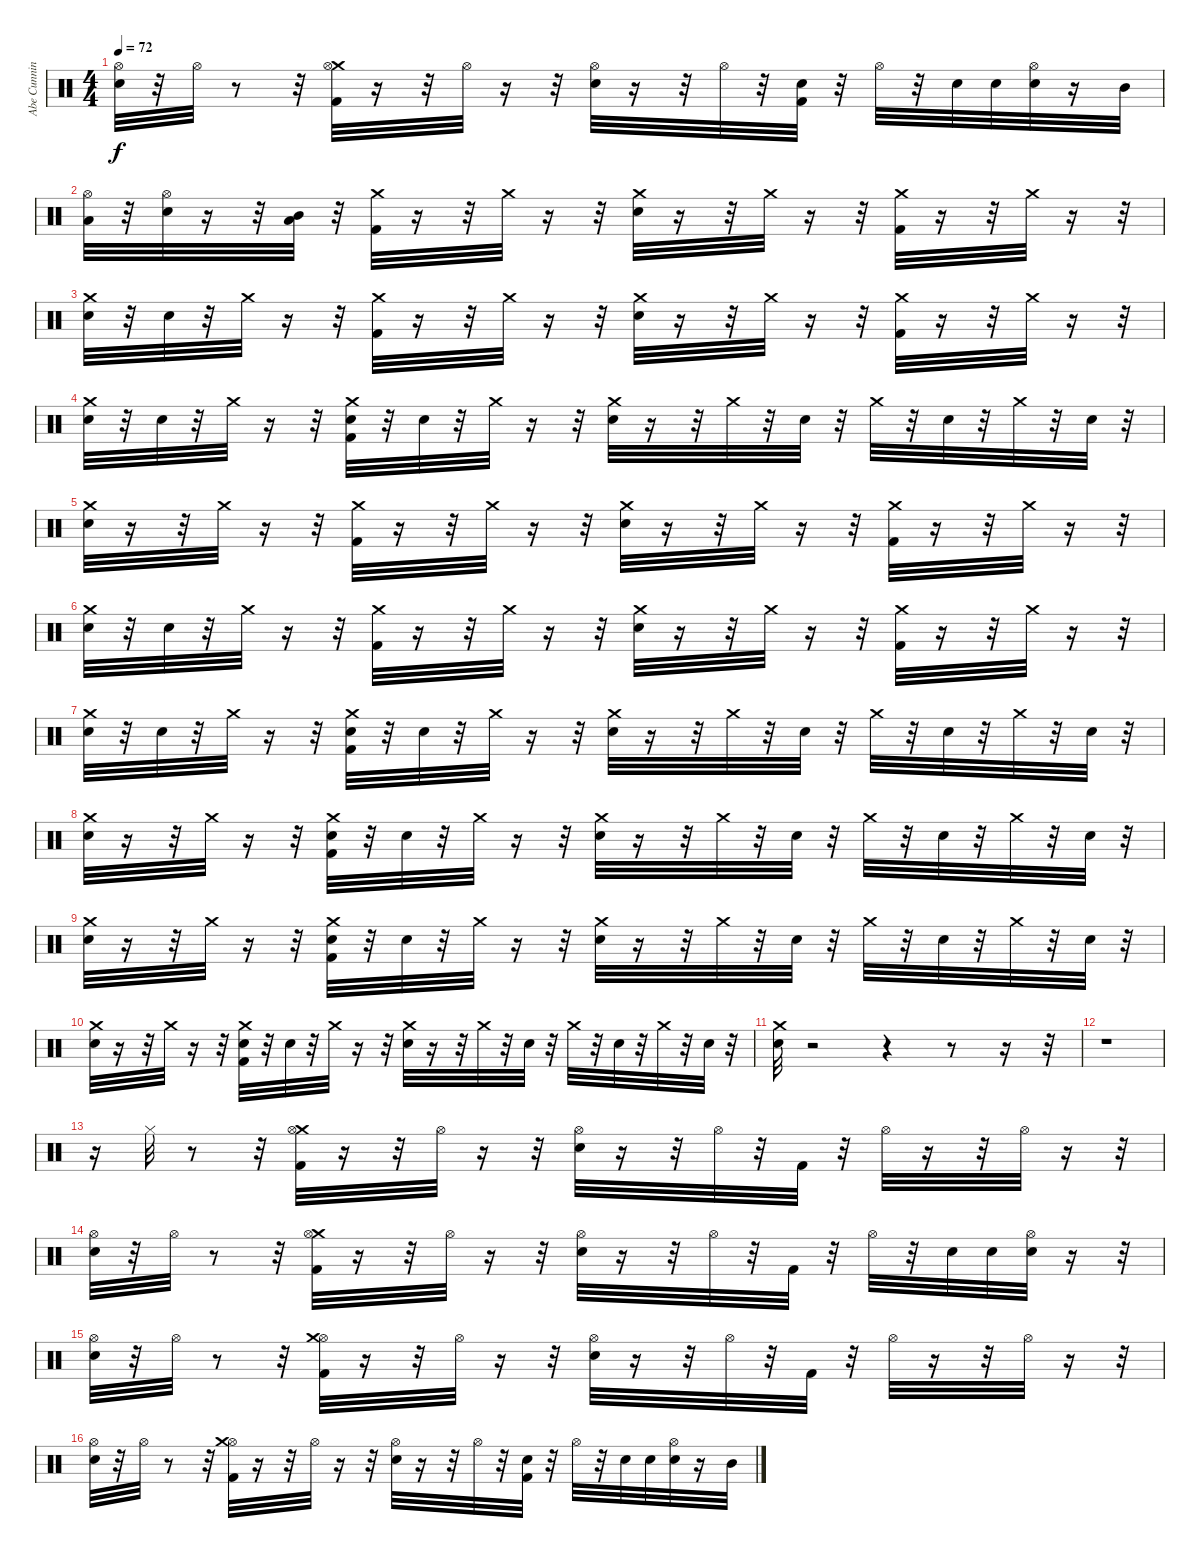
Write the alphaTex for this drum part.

\track ("Abe Cunningham [drums]" "Abe Cunnin") {instrument percussion}
\staff {score}
\articulation defaults
\ts (4 4)
\tempo 72
\clef neutral
\ks c
("Hi-Hat (open)" "Electric Snare (hit)").32{dy f} r.32 "Hi-Hat (open)".32 r.8 r.32 ("Crash medium (hit)" "Hi-Hat (open)" "Kick (hit) 2").32 r.16 r.32 "Hi-Hat (open)".32 r.16 r.32 ("Hi-Hat (open)" "Electric Snare (hit)").32 r.16 r.32 "Hi-Hat (open)".32 r.32 ("Electric Snare (hit)" "Kick (hit) 2").32 r.32 "Hi-Hat (open)".32 r.32 "Electric Snare (hit)".32 "Electric Snare (hit)".32 ("Hi-Hat (open)" "Electric Snare (hit)").32 r.16 "Mid Tom (hit)".32 |
("Hi-Hat (open)" "Low Tom (hit)").32 r.32 ("Hi-Hat (open)" "Electric Snare (hit)").32 r.16 r.32 ("Mid Tom (hit)" "Low Tom (hit)").32 r.32 ("Crash medium (hit)" "Kick (hit) 2").32 r.16 r.32 "Crash medium (hit)".32 r.16 r.32 ("Crash medium (hit)" "Electric Snare (hit)").32 r.16 r.32 "Crash medium (hit)".32 r.16 r.32 ("Crash medium (hit)" "Kick (hit) 2").32 r.16 r.32 "Crash medium (hit)".32 r.16 r.32 |
("Crash medium (hit)" "Electric Snare (hit)").32 r.32 "Electric Snare (hit)".32 r.32 "Crash medium (hit)".32 r.16 r.32 ("Crash medium (hit)" "Kick (hit) 2").32 r.16 r.32 "Crash medium (hit)".32 r.16 r.32 ("Crash medium (hit)" "Electric Snare (hit)").32 r.16 r.32 "Crash medium (hit)".32 r.16 r.32 ("Crash medium (hit)" "Kick (hit) 2").32 r.16 r.32 "Crash medium (hit)".32 r.16 r.32 |
("Crash medium (hit)" "Electric Snare (hit)").32 r.32 "Electric Snare (hit)".32 r.32 "Crash medium (hit)".32 r.16 r.32 ("Crash medium (hit)" "Electric Snare (hit)" "Kick (hit) 2").32 r.32 "Electric Snare (hit)".32 r.32 "Crash medium (hit)".32 r.16 r.32 ("Crash medium (hit)" "Electric Snare (hit)").32 r.16 r.32 "Crash medium (hit)".32 r.32 "Electric Snare (hit)".32 r.32 "Crash medium (hit)".32 r.32 "Electric Snare (hit)".32 r.32 "Crash medium (hit)".32 r.32 "Electric Snare (hit)".32 r.32 |
("Crash medium (hit)" "Electric Snare (hit)").32 r.16 r.32 "Crash medium (hit)".32 r.16 r.32 ("Crash medium (hit)" "Kick (hit) 2").32 r.16 r.32 "Crash medium (hit)".32 r.16 r.32 ("Crash medium (hit)" "Electric Snare (hit)").32 r.16 r.32 "Crash medium (hit)".32 r.16 r.32 ("Crash medium (hit)" "Kick (hit) 2").32 r.16 r.32 "Crash medium (hit)".32 r.16 r.32 |
("Crash medium (hit)" "Electric Snare (hit)").32 r.32 "Electric Snare (hit)".32 r.32 "Crash medium (hit)".32 r.16 r.32 ("Crash medium (hit)" "Kick (hit) 2").32 r.16 r.32 "Crash medium (hit)".32 r.16 r.32 ("Crash medium (hit)" "Electric Snare (hit)").32 r.16 r.32 "Crash medium (hit)".32 r.16 r.32 ("Crash medium (hit)" "Kick (hit) 2").32 r.16 r.32 "Crash medium (hit)".32 r.16 r.32 |
("Crash medium (hit)" "Electric Snare (hit)").32 r.32 "Electric Snare (hit)".32 r.32 "Crash medium (hit)".32 r.16 r.32 ("Crash medium (hit)" "Electric Snare (hit)" "Kick (hit) 2").32 r.32 "Electric Snare (hit)".32 r.32 "Crash medium (hit)".32 r.16 r.32 ("Crash medium (hit)" "Electric Snare (hit)").32 r.16 r.32 "Crash medium (hit)".32 r.32 "Electric Snare (hit)".32 r.32 "Crash medium (hit)".32 r.32 "Electric Snare (hit)".32 r.32 "Crash medium (hit)".32 r.32 "Electric Snare (hit)".32 r.32 |
("Crash medium (hit)" "Electric Snare (hit)").32 r.16 r.32 "Crash medium (hit)".32 r.16 r.32 ("Crash medium (hit)" "Electric Snare (hit)" "Kick (hit) 2").32 r.32 "Electric Snare (hit)".32 r.32 "Crash medium (hit)".32 r.16 r.32 ("Crash medium (hit)" "Electric Snare (hit)").32 r.16 r.32 "Crash medium (hit)".32 r.32 "Electric Snare (hit)".32 r.32 "Crash medium (hit)".32 r.32 "Electric Snare (hit)".32 r.32 "Crash medium (hit)".32 r.32 "Electric Snare (hit)".32 r.32 |
("Crash medium (hit)" "Electric Snare (hit)").32 r.16 r.32 "Crash medium (hit)".32 r.16 r.32 ("Crash medium (hit)" "Electric Snare (hit)" "Kick (hit) 2").32 r.32 "Electric Snare (hit)".32 r.32 "Crash medium (hit)".32 r.16 r.32 ("Crash medium (hit)" "Electric Snare (hit)").32 r.16 r.32 "Crash medium (hit)".32 r.32 "Electric Snare (hit)".32 r.32 "Crash medium (hit)".32 r.32 "Electric Snare (hit)".32 r.32 "Crash medium (hit)".32 r.32 "Electric Snare (hit)".32 r.32 |
("Crash medium (hit)" "Electric Snare (hit)").32 r.16 r.32 "Crash medium (hit)".32 r.16 r.32 ("Crash medium (hit)" "Electric Snare (hit)" "Kick (hit) 2").32 r.32 "Electric Snare (hit)".32 r.32 "Crash medium (hit)".32 r.16 r.32 ("Crash medium (hit)" "Electric Snare (hit)").32 r.16 r.32 "Crash medium (hit)".32 r.32 "Electric Snare (hit)".32 r.32 "Crash medium (hit)".32 r.32 "Electric Snare (hit)".32 r.32 "Crash medium (hit)".32 r.32 "Electric Snare (hit)".32 r.32 |
("Crash medium (hit)" "Electric Snare (hit)").32 r.2 r.4 r.8 r.16 r.32 |
r.1 |
r.16 "Hi-Hat (closed)".32 r.8 r.32 ("Crash medium (hit)" "Hi-Hat (open)" "Kick (hit) 2").32 r.16 r.32 "Hi-Hat (open)".32 r.16 r.32 ("Hi-Hat (open)" "Electric Snare (hit)").32 r.16 r.32 "Hi-Hat (open)".32 r.32 "Kick (hit) 2".32 r.32 "Hi-Hat (open)".32 r.16 r.32 "Hi-Hat (open)".32 r.16 r.32 |
("Hi-Hat (open)" "Electric Snare (hit)").32 r.32 "Hi-Hat (open)".32 r.8 r.32 ("Crash medium (hit)" "Hi-Hat (open)" "Kick (hit) 2").32 r.16 r.32 "Hi-Hat (open)".32 r.16 r.32 ("Hi-Hat (open)" "Electric Snare (hit)").32 r.16 r.32 "Hi-Hat (open)".32 r.32 "Kick (hit) 2".32 r.32 "Hi-Hat (open)".32 r.32 "Electric Snare (hit)".32 "Electric Snare (hit)".32 ("Hi-Hat (open)" "Electric Snare (hit)").32 r.16 r.32 |
("Hi-Hat (open)" "Electric Snare (hit)").32 r.32 "Hi-Hat (open)".32 r.8 r.32 ("Hi-Hat (open)" "Crash medium (hit)" "Kick (hit) 2").32 r.16 r.32 "Hi-Hat (open)".32 r.16 r.32 ("Hi-Hat (open)" "Electric Snare (hit)").32 r.16 r.32 "Hi-Hat (open)".32 r.32 "Kick (hit) 2".32 r.32 "Hi-Hat (open)".32 r.16 r.32 "Hi-Hat (open)".32 r.16 r.32 |
("Hi-Hat (open)" "Electric Snare (hit)").32 r.32 "Hi-Hat (open)".32 r.8 r.32 ("Hi-Hat (open)" "Crash medium (hit)" "Kick (hit) 2").32 r.16 r.32 "Hi-Hat (open)".32 r.16 r.32 ("Hi-Hat (open)" "Electric Snare (hit)").32 r.16 r.32 "Hi-Hat (open)".32 r.32 ("Electric Snare (hit)" "Kick (hit) 2").32 r.32 "Hi-Hat (open)".32 r.32 "Electric Snare (hit)".32 "Electric Snare (hit)".32 ("Hi-Hat (open)" "Electric Snare (hit)").32 r.16 "Mid Tom (hit)".32
